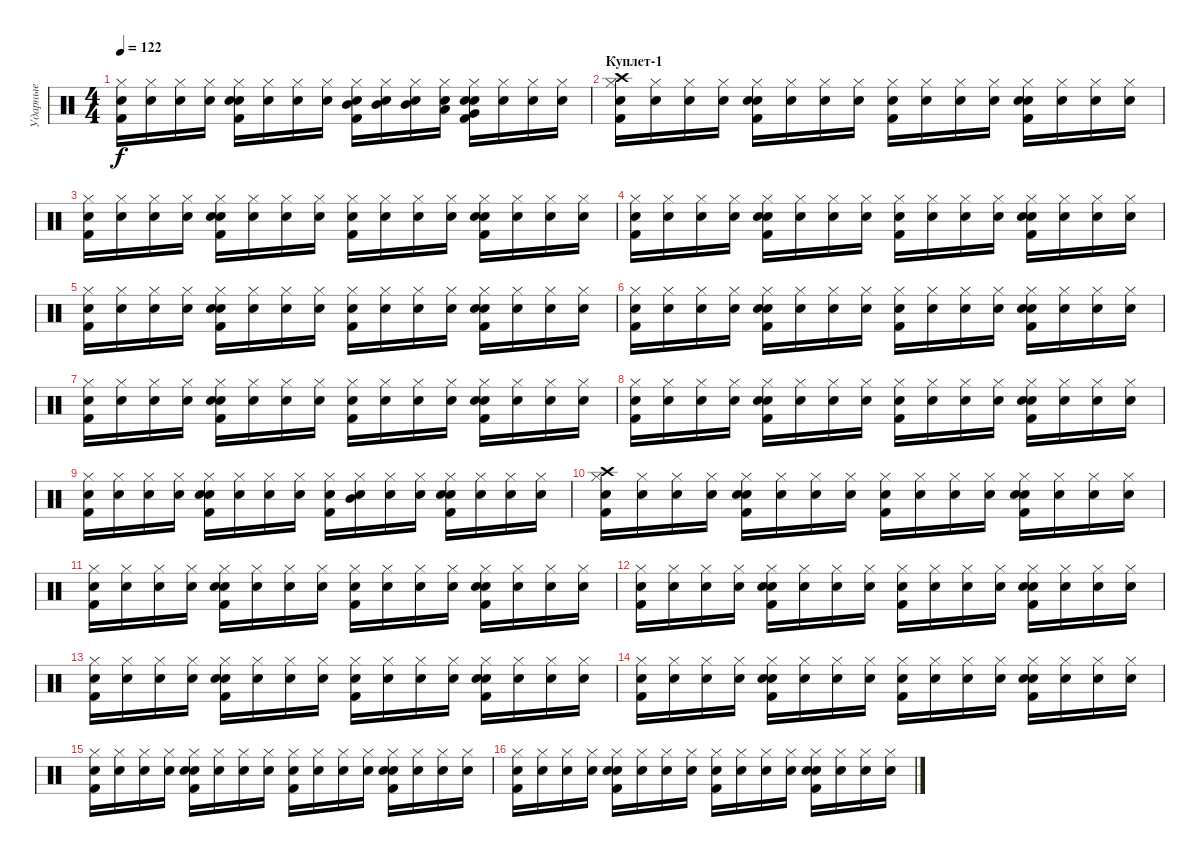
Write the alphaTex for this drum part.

\track ("Ударные" "Ударные") {instrument percussion}
\staff {score}
\articulation defaults
\ts (4 4)
\tempo 122
\clef neutral
\ks c
("Snare (hit)" "Kick (hit) 2" "Hi-Hat (closed)").16{dy f} ("Snare (hit)" "Hi-Hat (closed)").16 ("Snare (hit)" "Hi-Hat (closed)").16 ("Snare (hit)" "Hi-Hat (closed)").16 ("Snare (hit)" "Kick (hit) 2" "Snare (hit) 2" "Hi-Hat (closed)").16 ("Snare (hit)" "Hi-Hat (closed)").16 ("Snare (hit)" "Hi-Hat (closed)").16 ("Snare (hit)" "Hi-Hat (closed)").16 ("Snare (hit)" "Mid Tom (hit)" "Kick (hit) 2" "Hi-Hat (closed)").16 ("Snare (hit)" "Mid Tom (hit)" "Hi-Hat (closed)").16 ("Snare (hit)" "Mid Tom (hit)" "Hi-Hat (closed)").16 ("Snare (hit)" "Low Tom (hit)" "Hi-Hat (closed)").16 ("Snare (hit)" "Very Low Tom (hit)" "Kick (hit) 2" "Snare (hit) 2" "Hi-Hat (closed)").16 ("Snare (hit)" "Hi-Hat (closed)").16 ("Snare (hit)" "Hi-Hat (closed)").16 ("Snare (hit)" "Hi-Hat (closed)").16 |
\section ("" "Куплет-1")
("Snare (hit)" "Crash high (hit)" "Kick (hit) 2" "Hi-Hat (closed)").16 ("Snare (hit)" "Hi-Hat (closed)").16 ("Snare (hit)" "Hi-Hat (closed)").16 ("Snare (hit)" "Hi-Hat (closed)").16 ("Snare (hit)" "Kick (hit) 2" "Snare (hit) 2" "Hi-Hat (closed)").16 ("Snare (hit)" "Hi-Hat (closed)").16 ("Snare (hit)" "Hi-Hat (closed)").16 ("Snare (hit)" "Hi-Hat (closed)").16 ("Snare (hit)" "Kick (hit) 2" "Hi-Hat (closed)").16 ("Snare (hit)" "Hi-Hat (closed)").16 ("Snare (hit)" "Hi-Hat (closed)").16 ("Snare (hit)" "Hi-Hat (closed)").16 ("Snare (hit)" "Kick (hit) 2" "Snare (hit) 2" "Hi-Hat (closed)").16 ("Snare (hit)" "Hi-Hat (closed)").16 ("Snare (hit)" "Hi-Hat (closed)").16 ("Snare (hit)" "Hi-Hat (closed)").16 |
("Snare (hit)" "Kick (hit) 2" "Hi-Hat (closed)").16 ("Snare (hit)" "Hi-Hat (closed)").16 ("Snare (hit)" "Hi-Hat (closed)").16 ("Snare (hit)" "Hi-Hat (closed)").16 ("Snare (hit)" "Kick (hit) 2" "Snare (hit) 2" "Hi-Hat (closed)").16 ("Snare (hit)" "Hi-Hat (closed)").16 ("Snare (hit)" "Hi-Hat (closed)").16 ("Snare (hit)" "Hi-Hat (closed)").16 ("Snare (hit)" "Kick (hit) 2" "Hi-Hat (closed)").16 ("Snare (hit)" "Hi-Hat (closed)").16 ("Snare (hit)" "Hi-Hat (closed)").16 ("Snare (hit)" "Hi-Hat (closed)").16 ("Snare (hit)" "Kick (hit) 2" "Snare (hit) 2" "Hi-Hat (closed)").16 ("Snare (hit)" "Hi-Hat (closed)").16 ("Snare (hit)" "Hi-Hat (closed)").16 ("Snare (hit)" "Hi-Hat (closed)").16 |
("Snare (hit)" "Kick (hit) 2" "Hi-Hat (closed)").16 ("Snare (hit)" "Hi-Hat (closed)").16 ("Snare (hit)" "Hi-Hat (closed)").16 ("Snare (hit)" "Hi-Hat (closed)").16 ("Snare (hit)" "Kick (hit) 2" "Snare (hit) 2" "Hi-Hat (closed)").16 ("Snare (hit)" "Hi-Hat (closed)").16 ("Snare (hit)" "Hi-Hat (closed)").16 ("Snare (hit)" "Hi-Hat (closed)").16 ("Snare (hit)" "Kick (hit) 2" "Hi-Hat (closed)").16 ("Snare (hit)" "Hi-Hat (closed)").16 ("Snare (hit)" "Hi-Hat (closed)").16 ("Snare (hit)" "Hi-Hat (closed)").16 ("Snare (hit)" "Kick (hit) 2" "Snare (hit) 2" "Hi-Hat (closed)").16 ("Snare (hit)" "Hi-Hat (closed)").16 ("Snare (hit)" "Hi-Hat (closed)").16 ("Snare (hit)" "Hi-Hat (closed)").16 |
("Snare (hit)" "Kick (hit) 2" "Hi-Hat (closed)").16 ("Snare (hit)" "Hi-Hat (closed)").16 ("Snare (hit)" "Hi-Hat (closed)").16 ("Snare (hit)" "Hi-Hat (closed)").16 ("Snare (hit)" "Kick (hit) 2" "Snare (hit) 2" "Hi-Hat (closed)").16 ("Snare (hit)" "Hi-Hat (closed)").16 ("Snare (hit)" "Hi-Hat (closed)").16 ("Snare (hit)" "Hi-Hat (closed)").16 ("Snare (hit)" "Kick (hit) 2" "Hi-Hat (closed)").16 ("Snare (hit)" "Hi-Hat (closed)").16 ("Snare (hit)" "Hi-Hat (closed)").16 ("Snare (hit)" "Hi-Hat (closed)").16 ("Snare (hit)" "Kick (hit) 2" "Snare (hit) 2" "Hi-Hat (closed)").16 ("Snare (hit)" "Hi-Hat (closed)").16 ("Snare (hit)" "Hi-Hat (closed)").16 ("Snare (hit)" "Hi-Hat (closed)").16 |
("Snare (hit)" "Kick (hit) 2" "Hi-Hat (closed)").16 ("Snare (hit)" "Hi-Hat (closed)").16 ("Snare (hit)" "Hi-Hat (closed)").16 ("Snare (hit)" "Hi-Hat (closed)").16 ("Snare (hit)" "Kick (hit) 2" "Snare (hit) 2" "Hi-Hat (closed)").16 ("Snare (hit)" "Hi-Hat (closed)").16 ("Snare (hit)" "Hi-Hat (closed)").16 ("Snare (hit)" "Hi-Hat (closed)").16 ("Snare (hit)" "Kick (hit) 2" "Hi-Hat (closed)").16 ("Snare (hit)" "Hi-Hat (closed)").16 ("Snare (hit)" "Hi-Hat (closed)").16 ("Snare (hit)" "Hi-Hat (closed)").16 ("Snare (hit)" "Kick (hit) 2" "Snare (hit) 2" "Hi-Hat (closed)").16 ("Snare (hit)" "Hi-Hat (closed)").16 ("Snare (hit)" "Hi-Hat (closed)").16 ("Snare (hit)" "Hi-Hat (closed)").16 |
("Snare (hit)" "Kick (hit) 2" "Hi-Hat (closed)").16 ("Snare (hit)" "Hi-Hat (closed)").16 ("Snare (hit)" "Hi-Hat (closed)").16 ("Snare (hit)" "Hi-Hat (closed)").16 ("Snare (hit)" "Kick (hit) 2" "Snare (hit) 2" "Hi-Hat (closed)").16 ("Snare (hit)" "Hi-Hat (closed)").16 ("Snare (hit)" "Hi-Hat (closed)").16 ("Snare (hit)" "Hi-Hat (closed)").16 ("Snare (hit)" "Kick (hit) 2" "Hi-Hat (closed)").16 ("Snare (hit)" "Hi-Hat (closed)").16 ("Snare (hit)" "Hi-Hat (closed)").16 ("Snare (hit)" "Hi-Hat (closed)").16 ("Snare (hit)" "Kick (hit) 2" "Snare (hit) 2" "Hi-Hat (closed)").16 ("Snare (hit)" "Hi-Hat (closed)").16 ("Snare (hit)" "Hi-Hat (closed)").16 ("Snare (hit)" "Hi-Hat (closed)").16 |
("Snare (hit)" "Kick (hit) 2" "Hi-Hat (closed)").16 ("Snare (hit)" "Hi-Hat (closed)").16 ("Snare (hit)" "Hi-Hat (closed)").16 ("Snare (hit)" "Hi-Hat (closed)").16 ("Snare (hit)" "Kick (hit) 2" "Snare (hit) 2" "Hi-Hat (closed)").16 ("Snare (hit)" "Hi-Hat (closed)").16 ("Snare (hit)" "Hi-Hat (closed)").16 ("Snare (hit)" "Hi-Hat (closed)").16 ("Snare (hit)" "Kick (hit) 2" "Hi-Hat (closed)").16 ("Snare (hit)" "Hi-Hat (closed)").16 ("Snare (hit)" "Hi-Hat (closed)").16 ("Snare (hit)" "Hi-Hat (closed)").16 ("Snare (hit)" "Kick (hit) 2" "Snare (hit) 2" "Hi-Hat (closed)").16 ("Snare (hit)" "Hi-Hat (closed)").16 ("Snare (hit)" "Hi-Hat (closed)").16 ("Snare (hit)" "Hi-Hat (closed)").16 |
("Snare (hit)" "Kick (hit) 2" "Hi-Hat (closed)").16 ("Snare (hit)" "Hi-Hat (closed)").16 ("Snare (hit)" "Hi-Hat (closed)").16 ("Snare (hit)" "Hi-Hat (closed)").16 ("Snare (hit)" "Kick (hit) 2" "Snare (hit) 2" "Hi-Hat (closed)").16 ("Snare (hit)" "Hi-Hat (closed)").16 ("Snare (hit)" "Hi-Hat (closed)").16 ("Snare (hit)" "Hi-Hat (closed)").16 ("Snare (hit)" "Kick (hit) 2" "Hi-Hat (closed)").16 ("Snare (hit)" "Hi-Hat (closed)" "Mid Tom (hit)").16 ("Snare (hit)" "Hi-Hat (closed)").16 ("Snare (hit)" "Hi-Hat (closed)").16 ("Snare (hit)" "Kick (hit) 2" "Snare (hit) 2" "Hi-Hat (closed)").16 ("Snare (hit)" "Hi-Hat (closed)").16 ("Snare (hit)" "Hi-Hat (closed)").16 ("Snare (hit)" "Hi-Hat (closed)").16 |
("Snare (hit)" "Crash high (hit)" "Kick (hit) 2" "Hi-Hat (closed)").16 ("Snare (hit)" "Hi-Hat (closed)").16 ("Snare (hit)" "Hi-Hat (closed)").16 ("Snare (hit)" "Hi-Hat (closed)").16 ("Snare (hit)" "Kick (hit) 2" "Snare (hit) 2" "Hi-Hat (closed)").16 ("Snare (hit)" "Hi-Hat (closed)").16 ("Snare (hit)" "Hi-Hat (closed)").16 ("Snare (hit)" "Hi-Hat (closed)").16 ("Snare (hit)" "Kick (hit) 2" "Hi-Hat (closed)").16 ("Snare (hit)" "Hi-Hat (closed)").16 ("Snare (hit)" "Hi-Hat (closed)").16 ("Snare (hit)" "Hi-Hat (closed)").16 ("Snare (hit)" "Kick (hit) 2" "Snare (hit) 2" "Hi-Hat (closed)").16 ("Snare (hit)" "Hi-Hat (closed)").16 ("Snare (hit)" "Hi-Hat (closed)").16 ("Snare (hit)" "Hi-Hat (closed)").16 |
("Snare (hit)" "Kick (hit) 2" "Hi-Hat (closed)").16 ("Snare (hit)" "Hi-Hat (closed)").16 ("Snare (hit)" "Hi-Hat (closed)").16 ("Snare (hit)" "Hi-Hat (closed)").16 ("Snare (hit)" "Kick (hit) 2" "Snare (hit) 2" "Hi-Hat (closed)").16 ("Snare (hit)" "Hi-Hat (closed)").16 ("Snare (hit)" "Hi-Hat (closed)").16 ("Snare (hit)" "Hi-Hat (closed)").16 ("Snare (hit)" "Kick (hit) 2" "Hi-Hat (closed)").16 ("Snare (hit)" "Hi-Hat (closed)").16 ("Snare (hit)" "Hi-Hat (closed)").16 ("Snare (hit)" "Hi-Hat (closed)").16 ("Snare (hit)" "Kick (hit) 2" "Snare (hit) 2" "Hi-Hat (closed)").16 ("Snare (hit)" "Hi-Hat (closed)").16 ("Snare (hit)" "Hi-Hat (closed)").16 ("Snare (hit)" "Hi-Hat (closed)").16 |
("Snare (hit)" "Kick (hit) 2" "Hi-Hat (closed)").16 ("Snare (hit)" "Hi-Hat (closed)").16 ("Snare (hit)" "Hi-Hat (closed)").16 ("Snare (hit)" "Hi-Hat (closed)").16 ("Snare (hit)" "Kick (hit) 2" "Snare (hit) 2" "Hi-Hat (closed)").16 ("Snare (hit)" "Hi-Hat (closed)").16 ("Snare (hit)" "Hi-Hat (closed)").16 ("Snare (hit)" "Hi-Hat (closed)").16 ("Snare (hit)" "Kick (hit) 2" "Hi-Hat (closed)").16 ("Snare (hit)" "Hi-Hat (closed)").16 ("Snare (hit)" "Hi-Hat (closed)").16 ("Snare (hit)" "Hi-Hat (closed)").16 ("Snare (hit)" "Kick (hit) 2" "Snare (hit) 2" "Hi-Hat (closed)").16 ("Snare (hit)" "Hi-Hat (closed)").16 ("Snare (hit)" "Hi-Hat (closed)").16 ("Snare (hit)" "Hi-Hat (closed)").16 |
("Snare (hit)" "Kick (hit) 2" "Hi-Hat (closed)").16 ("Snare (hit)" "Hi-Hat (closed)").16 ("Snare (hit)" "Hi-Hat (closed)").16 ("Snare (hit)" "Hi-Hat (closed)").16 ("Snare (hit)" "Kick (hit) 2" "Snare (hit) 2" "Hi-Hat (closed)").16 ("Snare (hit)" "Hi-Hat (closed)").16 ("Snare (hit)" "Hi-Hat (closed)").16 ("Snare (hit)" "Hi-Hat (closed)").16 ("Snare (hit)" "Kick (hit) 2" "Hi-Hat (closed)").16 ("Snare (hit)" "Hi-Hat (closed)").16 ("Snare (hit)" "Hi-Hat (closed)").16 ("Snare (hit)" "Hi-Hat (closed)").16 ("Snare (hit)" "Kick (hit) 2" "Snare (hit) 2" "Hi-Hat (closed)").16 ("Snare (hit)" "Hi-Hat (closed)").16 ("Snare (hit)" "Hi-Hat (closed)").16 ("Snare (hit)" "Hi-Hat (closed)").16 |
("Snare (hit)" "Kick (hit) 2" "Hi-Hat (closed)").16 ("Snare (hit)" "Hi-Hat (closed)").16 ("Snare (hit)" "Hi-Hat (closed)").16 ("Snare (hit)" "Hi-Hat (closed)").16 ("Snare (hit)" "Kick (hit) 2" "Snare (hit) 2" "Hi-Hat (closed)").16 ("Snare (hit)" "Hi-Hat (closed)").16 ("Snare (hit)" "Hi-Hat (closed)").16 ("Snare (hit)" "Hi-Hat (closed)").16 ("Snare (hit)" "Kick (hit) 2" "Hi-Hat (closed)").16 ("Snare (hit)" "Hi-Hat (closed)").16 ("Snare (hit)" "Hi-Hat (closed)").16 ("Snare (hit)" "Hi-Hat (closed)").16 ("Snare (hit)" "Kick (hit) 2" "Snare (hit) 2" "Hi-Hat (closed)").16 ("Snare (hit)" "Hi-Hat (closed)").16 ("Snare (hit)" "Hi-Hat (closed)").16 ("Snare (hit)" "Hi-Hat (closed)").16 |
("Snare (hit)" "Kick (hit) 2" "Hi-Hat (closed)").16 ("Snare (hit)" "Hi-Hat (closed)").16 ("Snare (hit)" "Hi-Hat (closed)").16 ("Snare (hit)" "Hi-Hat (closed)").16 ("Snare (hit)" "Kick (hit) 2" "Snare (hit) 2" "Hi-Hat (closed)").16 ("Snare (hit)" "Hi-Hat (closed)").16 ("Snare (hit)" "Hi-Hat (closed)").16 ("Snare (hit)" "Hi-Hat (closed)").16 ("Snare (hit)" "Kick (hit) 2" "Hi-Hat (closed)").16 ("Snare (hit)" "Hi-Hat (closed)").16 ("Snare (hit)" "Hi-Hat (closed)").16 ("Snare (hit)" "Hi-Hat (closed)").16 ("Snare (hit)" "Kick (hit) 2" "Snare (hit) 2" "Hi-Hat (closed)").16 ("Snare (hit)" "Hi-Hat (closed)").16 ("Snare (hit)" "Hi-Hat (closed)").16 ("Snare (hit)" "Hi-Hat (closed)").16 |
("Snare (hit)" "Kick (hit) 2" "Hi-Hat (closed)").16 ("Snare (hit)" "Hi-Hat (closed)").16 ("Snare (hit)" "Hi-Hat (closed)").16 ("Snare (hit)" "Hi-Hat (closed)").16 ("Snare (hit)" "Kick (hit) 2" "Snare (hit) 2" "Hi-Hat (closed)").16 ("Snare (hit)" "Hi-Hat (closed)").16 ("Snare (hit)" "Hi-Hat (closed)").16 ("Snare (hit)" "Hi-Hat (closed)").16 ("Snare (hit)" "Kick (hit) 2" "Hi-Hat (closed)").16 ("Snare (hit)" "Hi-Hat (closed)").16 ("Snare (hit)" "Hi-Hat (closed)").16 ("Snare (hit)" "Hi-Hat (closed)").16 ("Snare (hit)" "Kick (hit) 2" "Snare (hit) 2" "Hi-Hat (closed)").16 ("Snare (hit)" "Hi-Hat (closed)").16 ("Snare (hit)" "Hi-Hat (closed)").16 ("Snare (hit)" "Hi-Hat (closed)").16
